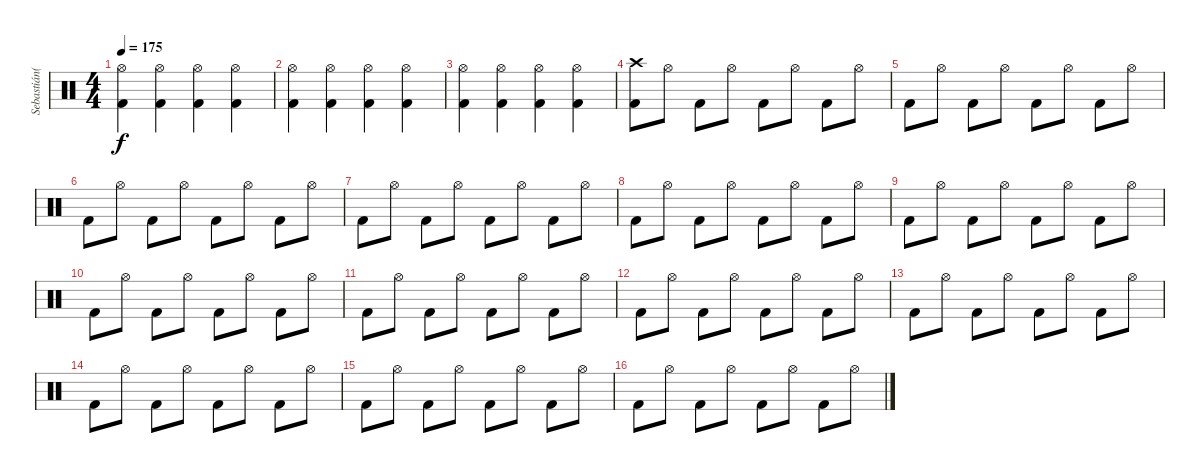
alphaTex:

\track ("Sebastián(Bateria)" "Sebastián(") {instrument percussion}
\staff {score}
\articulation defaults
\ts (4 4)
\tempo 175
\clef neutral
\ks c
("Hi-Hat (open)" "Kick (hit) 2").4{dy f} ("Hi-Hat (open)" "Kick (hit) 2").4 ("Hi-Hat (open)" "Kick (hit) 2").4 ("Hi-Hat (open)" "Kick (hit) 2").4 |
("Hi-Hat (open)" "Kick (hit) 2").4 ("Hi-Hat (open)" "Kick (hit) 2").4 ("Hi-Hat (open)" "Kick (hit) 2").4 ("Hi-Hat (open)" "Kick (hit) 2").4 |
("Hi-Hat (open)" "Kick (hit) 2").4 ("Hi-Hat (open)" "Kick (hit) 2").4 ("Hi-Hat (open)" "Kick (hit) 2").4 ("Hi-Hat (open)" "Kick (hit) 2").4 |
("Crash high (hit)" "Kick (hit) 2").8 "Hi-Hat (open)".8 "Kick (hit) 2".8 "Hi-Hat (open)".8 "Kick (hit) 2".8 "Hi-Hat (open)".8 "Kick (hit) 2".8 "Hi-Hat (open)".8 |
"Kick (hit) 2".8 "Hi-Hat (open)".8 "Kick (hit) 2".8 "Hi-Hat (open)".8 "Kick (hit) 2".8 "Hi-Hat (open)".8 "Kick (hit) 2".8 "Hi-Hat (open)".8 |
"Kick (hit) 2".8 "Hi-Hat (open)".8 "Kick (hit) 2".8 "Hi-Hat (open)".8 "Kick (hit) 2".8 "Hi-Hat (open)".8 "Kick (hit) 2".8 "Hi-Hat (open)".8 |
"Kick (hit) 2".8 "Hi-Hat (open)".8 "Kick (hit) 2".8 "Hi-Hat (open)".8 "Kick (hit) 2".8 "Hi-Hat (open)".8 "Kick (hit) 2".8 "Hi-Hat (open)".8 |
"Kick (hit) 2".8 "Hi-Hat (open)".8 "Kick (hit) 2".8 "Hi-Hat (open)".8 "Kick (hit) 2".8 "Hi-Hat (open)".8 "Kick (hit) 2".8 "Hi-Hat (open)".8 |
"Kick (hit) 2".8 "Hi-Hat (open)".8 "Kick (hit) 2".8 "Hi-Hat (open)".8 "Kick (hit) 2".8 "Hi-Hat (open)".8 "Kick (hit) 2".8 "Hi-Hat (open)".8 |
"Kick (hit) 2".8 "Hi-Hat (open)".8 "Kick (hit) 2".8 "Hi-Hat (open)".8 "Kick (hit) 2".8 "Hi-Hat (open)".8 "Kick (hit) 2".8 "Hi-Hat (open)".8 |
"Kick (hit) 2".8 "Hi-Hat (open)".8 "Kick (hit) 2".8 "Hi-Hat (open)".8 "Kick (hit) 2".8 "Hi-Hat (open)".8 "Kick (hit) 2".8 "Hi-Hat (open)".8 |
"Kick (hit) 2".8 "Hi-Hat (open)".8 "Kick (hit) 2".8 "Hi-Hat (open)".8 "Kick (hit) 2".8 "Hi-Hat (open)".8 "Kick (hit) 2".8 "Hi-Hat (open)".8 |
"Kick (hit) 2".8 "Hi-Hat (open)".8 "Kick (hit) 2".8 "Hi-Hat (open)".8 "Kick (hit) 2".8 "Hi-Hat (open)".8 "Kick (hit) 2".8 "Hi-Hat (open)".8 |
"Kick (hit) 2".8 "Hi-Hat (open)".8 "Kick (hit) 2".8 "Hi-Hat (open)".8 "Kick (hit) 2".8 "Hi-Hat (open)".8 "Kick (hit) 2".8 "Hi-Hat (open)".8 |
"Kick (hit) 2".8 "Hi-Hat (open)".8 "Kick (hit) 2".8 "Hi-Hat (open)".8 "Kick (hit) 2".8 "Hi-Hat (open)".8 "Kick (hit) 2".8 "Hi-Hat (open)".8 |
"Kick (hit) 2".8 "Hi-Hat (open)".8 "Kick (hit) 2".8 "Hi-Hat (open)".8 "Kick (hit) 2".8 "Hi-Hat (open)".8 "Kick (hit) 2".8 "Hi-Hat (open)".8
